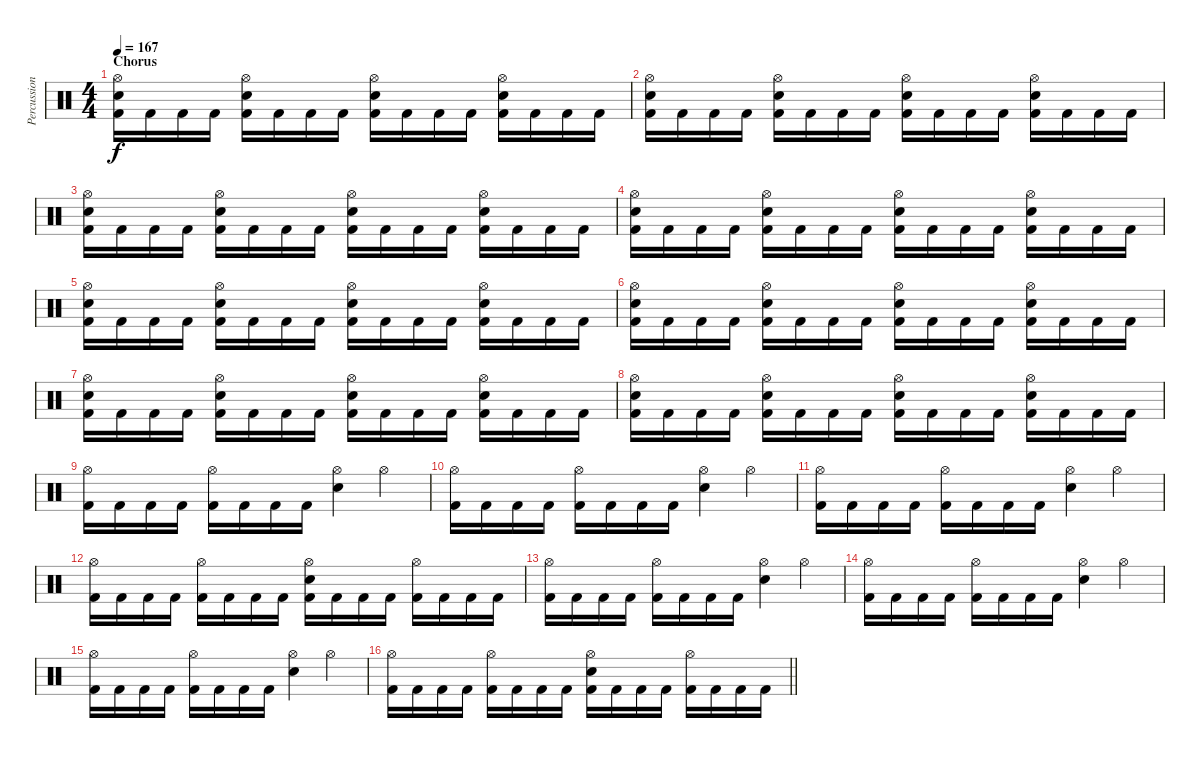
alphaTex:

\track ("Percussion" "Percussion") {instrument percussion}
\staff {score}
\articulation defaults
\ts (4 4)
\section ("" "Chorus")
\tempo 167
\clef neutral
\ks c
("Hi-Hat (open)" "Snare (hit) 2" "Kick (hit) 2").16{dy f} "Kick (hit) 2".16 "Kick (hit) 2".16 "Kick (hit) 2".16 ("Hi-Hat (open)" "Snare (hit) 2" "Kick (hit) 2").16 "Kick (hit) 2".16 "Kick (hit) 2".16 "Kick (hit) 2".16 ("Hi-Hat (open)" "Snare (hit) 2" "Kick (hit) 2").16 "Kick (hit) 2".16 "Kick (hit) 2".16 "Kick (hit) 2".16 ("Hi-Hat (open)" "Snare (hit) 2" "Kick (hit) 2").16 "Kick (hit) 2".16 "Kick (hit) 2".16 "Kick (hit) 2".16 |
("Hi-Hat (open)" "Snare (hit) 2" "Kick (hit) 2").16 "Kick (hit) 2".16 "Kick (hit) 2".16 "Kick (hit) 2".16 ("Hi-Hat (open)" "Snare (hit) 2" "Kick (hit) 2").16 "Kick (hit) 2".16 "Kick (hit) 2".16 "Kick (hit) 2".16 ("Hi-Hat (open)" "Snare (hit) 2" "Kick (hit) 2").16 "Kick (hit) 2".16 "Kick (hit) 2".16 "Kick (hit) 2".16 ("Hi-Hat (open)" "Snare (hit) 2" "Kick (hit) 2").16 "Kick (hit) 2".16 "Kick (hit) 2".16 "Kick (hit) 2".16 |
("Hi-Hat (open)" "Snare (hit) 2" "Kick (hit) 2").16 "Kick (hit) 2".16 "Kick (hit) 2".16 "Kick (hit) 2".16 ("Hi-Hat (open)" "Snare (hit) 2" "Kick (hit) 2").16 "Kick (hit) 2".16 "Kick (hit) 2".16 "Kick (hit) 2".16 ("Hi-Hat (open)" "Snare (hit) 2" "Kick (hit) 2").16 "Kick (hit) 2".16 "Kick (hit) 2".16 "Kick (hit) 2".16 ("Hi-Hat (open)" "Snare (hit) 2" "Kick (hit) 2").16 "Kick (hit) 2".16 "Kick (hit) 2".16 "Kick (hit) 2".16 |
("Hi-Hat (open)" "Snare (hit) 2" "Kick (hit) 2").16 "Kick (hit) 2".16 "Kick (hit) 2".16 "Kick (hit) 2".16 ("Hi-Hat (open)" "Snare (hit) 2" "Kick (hit) 2").16 "Kick (hit) 2".16 "Kick (hit) 2".16 "Kick (hit) 2".16 ("Hi-Hat (open)" "Snare (hit) 2" "Kick (hit) 2").16 "Kick (hit) 2".16 "Kick (hit) 2".16 "Kick (hit) 2".16 ("Hi-Hat (open)" "Snare (hit) 2" "Kick (hit) 2").16 "Kick (hit) 2".16 "Kick (hit) 2".16 "Kick (hit) 2".16 |
("Hi-Hat (open)" "Snare (hit) 2" "Kick (hit) 2").16 "Kick (hit) 2".16 "Kick (hit) 2".16 "Kick (hit) 2".16 ("Hi-Hat (open)" "Snare (hit) 2" "Kick (hit) 2").16 "Kick (hit) 2".16 "Kick (hit) 2".16 "Kick (hit) 2".16 ("Hi-Hat (open)" "Snare (hit) 2" "Kick (hit) 2").16 "Kick (hit) 2".16 "Kick (hit) 2".16 "Kick (hit) 2".16 ("Hi-Hat (open)" "Snare (hit) 2" "Kick (hit) 2").16 "Kick (hit) 2".16 "Kick (hit) 2".16 "Kick (hit) 2".16 |
("Hi-Hat (open)" "Snare (hit) 2" "Kick (hit) 2").16 "Kick (hit) 2".16 "Kick (hit) 2".16 "Kick (hit) 2".16 ("Hi-Hat (open)" "Snare (hit) 2" "Kick (hit) 2").16 "Kick (hit) 2".16 "Kick (hit) 2".16 "Kick (hit) 2".16 ("Hi-Hat (open)" "Snare (hit) 2" "Kick (hit) 2").16 "Kick (hit) 2".16 "Kick (hit) 2".16 "Kick (hit) 2".16 ("Hi-Hat (open)" "Snare (hit) 2" "Kick (hit) 2").16 "Kick (hit) 2".16 "Kick (hit) 2".16 "Kick (hit) 2".16 |
("Hi-Hat (open)" "Snare (hit) 2" "Kick (hit) 2").16 "Kick (hit) 2".16 "Kick (hit) 2".16 "Kick (hit) 2".16 ("Hi-Hat (open)" "Snare (hit) 2" "Kick (hit) 2").16 "Kick (hit) 2".16 "Kick (hit) 2".16 "Kick (hit) 2".16 ("Hi-Hat (open)" "Snare (hit) 2" "Kick (hit) 2").16 "Kick (hit) 2".16 "Kick (hit) 2".16 "Kick (hit) 2".16 ("Hi-Hat (open)" "Snare (hit) 2" "Kick (hit) 2").16 "Kick (hit) 2".16 "Kick (hit) 2".16 "Kick (hit) 2".16 |
("Hi-Hat (open)" "Snare (hit) 2" "Kick (hit) 2").16 "Kick (hit) 2".16 "Kick (hit) 2".16 "Kick (hit) 2".16 ("Hi-Hat (open)" "Snare (hit) 2" "Kick (hit) 2").16 "Kick (hit) 2".16 "Kick (hit) 2".16 "Kick (hit) 2".16 ("Hi-Hat (open)" "Snare (hit) 2" "Kick (hit) 2").16 "Kick (hit) 2".16 "Kick (hit) 2".16 "Kick (hit) 2".16 ("Hi-Hat (open)" "Snare (hit) 2" "Kick (hit) 2").16 "Kick (hit) 2".16 "Kick (hit) 2".16 "Kick (hit) 2".16 |
("Hi-Hat (open)" "Kick (hit) 2").16 "Kick (hit) 2".16 "Kick (hit) 2".16 "Kick (hit) 2".16 ("Hi-Hat (open)" "Kick (hit) 2").16 "Kick (hit) 2".16 "Kick (hit) 2".16 "Kick (hit) 2".16 ("Hi-Hat (open)" "Snare (hit) 2").4 "Hi-Hat (open)".4 |
("Hi-Hat (open)" "Kick (hit) 2").16 "Kick (hit) 2".16 "Kick (hit) 2".16 "Kick (hit) 2".16 ("Hi-Hat (open)" "Kick (hit) 2").16 "Kick (hit) 2".16 "Kick (hit) 2".16 "Kick (hit) 2".16 ("Hi-Hat (open)" "Snare (hit) 2").4 "Hi-Hat (open)".4 |
("Hi-Hat (open)" "Kick (hit) 2").16 "Kick (hit) 2".16 "Kick (hit) 2".16 "Kick (hit) 2".16 ("Hi-Hat (open)" "Kick (hit) 2").16 "Kick (hit) 2".16 "Kick (hit) 2".16 "Kick (hit) 2".16 ("Hi-Hat (open)" "Snare (hit) 2").4 "Hi-Hat (open)".4 |
("Hi-Hat (open)" "Kick (hit) 2").16 "Kick (hit) 2".16 "Kick (hit) 2".16 "Kick (hit) 2".16 ("Hi-Hat (open)" "Kick (hit) 2").16 "Kick (hit) 2".16 "Kick (hit) 2".16 "Kick (hit) 2".16 ("Hi-Hat (open)" "Snare (hit) 2" "Kick (hit) 2").16 "Kick (hit) 2".16 "Kick (hit) 2".16 "Kick (hit) 2".16 ("Hi-Hat (open)" "Kick (hit) 2").16 "Kick (hit) 2".16 "Kick (hit) 2".16 "Kick (hit) 2".16 |
("Hi-Hat (open)" "Kick (hit) 2").16 "Kick (hit) 2".16 "Kick (hit) 2".16 "Kick (hit) 2".16 ("Hi-Hat (open)" "Kick (hit) 2").16 "Kick (hit) 2".16 "Kick (hit) 2".16 "Kick (hit) 2".16 ("Hi-Hat (open)" "Snare (hit) 2").4 "Hi-Hat (open)".4 |
("Hi-Hat (open)" "Kick (hit) 2").16 "Kick (hit) 2".16 "Kick (hit) 2".16 "Kick (hit) 2".16 ("Hi-Hat (open)" "Kick (hit) 2").16 "Kick (hit) 2".16 "Kick (hit) 2".16 "Kick (hit) 2".16 ("Hi-Hat (open)" "Snare (hit) 2").4 "Hi-Hat (open)".4 |
("Hi-Hat (open)" "Kick (hit) 2").16 "Kick (hit) 2".16 "Kick (hit) 2".16 "Kick (hit) 2".16 ("Hi-Hat (open)" "Kick (hit) 2").16 "Kick (hit) 2".16 "Kick (hit) 2".16 "Kick (hit) 2".16 ("Hi-Hat (open)" "Snare (hit) 2").4 "Hi-Hat (open)".4 |
\barLineRight lightlight
("Hi-Hat (open)" "Kick (hit) 2").16 "Kick (hit) 2".16 "Kick (hit) 2".16 "Kick (hit) 2".16 ("Hi-Hat (open)" "Kick (hit) 2").16 "Kick (hit) 2".16 "Kick (hit) 2".16 "Kick (hit) 2".16 ("Hi-Hat (open)" "Snare (hit) 2" "Kick (hit) 2").16 "Kick (hit) 2".16 "Kick (hit) 2".16 "Kick (hit) 2".16 ("Hi-Hat (open)" "Kick (hit) 2").16 "Kick (hit) 2".16 "Kick (hit) 2".16 "Kick (hit) 2".16
